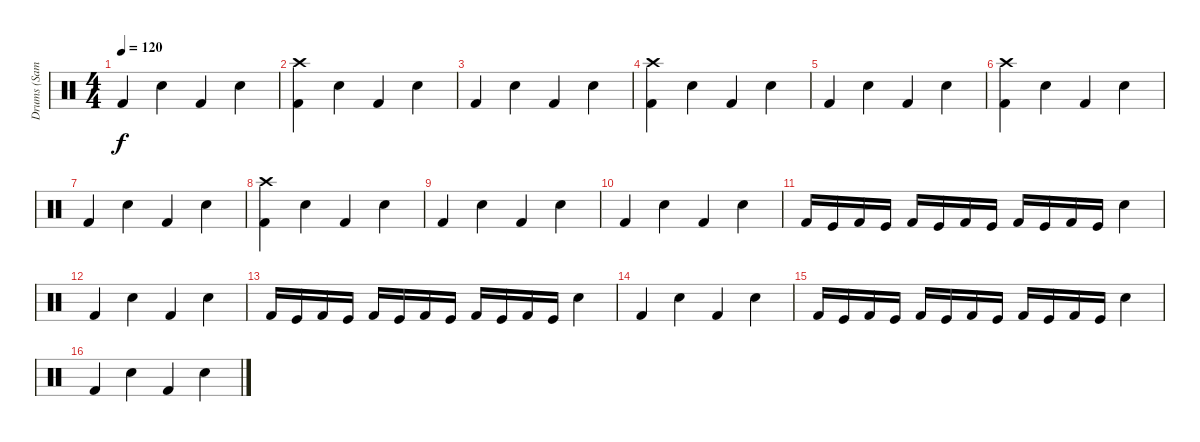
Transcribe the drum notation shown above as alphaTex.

\track ("Drums (Sami Karppinen)" "Drums (Sam") {instrument percussion}
\staff {score}
\articulation defaults
\ts (4 4)
\tempo 120
\clef neutral
\ks c "Kick (hit) 2".4{dy f} "Electric Snare (hit)".4 "Kick (hit) 2".4 "Electric Snare (hit)".4
|
("Crash high (hit)" "Kick (hit) 2").4 "Electric Snare (hit)".4 "Kick (hit) 2".4 "Electric Snare (hit)".4 |
"Kick (hit) 2".4 "Electric Snare (hit)".4 "Kick (hit) 2".4 "Electric Snare (hit)".4 |
("Crash high (hit)" "Kick (hit) 2").4 "Electric Snare (hit)".4 "Kick (hit) 2".4 "Electric Snare (hit)".4 |
"Kick (hit) 2".4 "Electric Snare (hit)".4 "Kick (hit) 2".4 "Electric Snare (hit)".4 |
("Crash high (hit)" "Kick (hit) 2").4 "Electric Snare (hit)".4 "Kick (hit) 2".4 "Electric Snare (hit)".4 |
"Kick (hit) 2".4 "Electric Snare (hit)".4 "Kick (hit) 2".4 "Electric Snare (hit)".4 |
("Crash high (hit)" "Kick (hit) 2").4 "Electric Snare (hit)".4 "Kick (hit) 2".4 "Electric Snare (hit)".4 |
"Kick (hit) 2".4 "Electric Snare (hit)".4 "Kick (hit) 2".4 "Electric Snare (hit)".4 |
"Kick (hit) 2".4 "Electric Snare (hit)".4 "Kick (hit) 2".4 "Electric Snare (hit)".4 |
"Kick (hit) 2".16 "Kick (hit)".16 "Kick (hit) 2".16 "Kick (hit)".16 "Kick (hit) 2".16 "Kick (hit)".16 "Kick (hit) 2".16 "Kick (hit)".16 "Kick (hit) 2".16 "Kick (hit)".16 "Kick (hit) 2".16 "Kick (hit)".16 "Electric Snare (hit)".4 |
"Kick (hit) 2".4 "Electric Snare (hit)".4 "Kick (hit) 2".4 "Electric Snare (hit)".4 |
"Kick (hit) 2".16 "Kick (hit)".16 "Kick (hit) 2".16 "Kick (hit)".16 "Kick (hit) 2".16 "Kick (hit)".16 "Kick (hit) 2".16 "Kick (hit)".16 "Kick (hit) 2".16 "Kick (hit)".16 "Kick (hit) 2".16 "Kick (hit)".16 "Electric Snare (hit)".4 |
"Kick (hit) 2".4 "Electric Snare (hit)".4 "Kick (hit) 2".4 "Electric Snare (hit)".4 |
"Kick (hit) 2".16 "Kick (hit)".16 "Kick (hit) 2".16 "Kick (hit)".16 "Kick (hit) 2".16 "Kick (hit)".16 "Kick (hit) 2".16 "Kick (hit)".16 "Kick (hit) 2".16 "Kick (hit)".16 "Kick (hit) 2".16 "Kick (hit)".16 "Electric Snare (hit)".4 |
"Kick (hit) 2".4 "Electric Snare (hit)".4 "Kick (hit) 2".4 "Electric Snare (hit)".4
